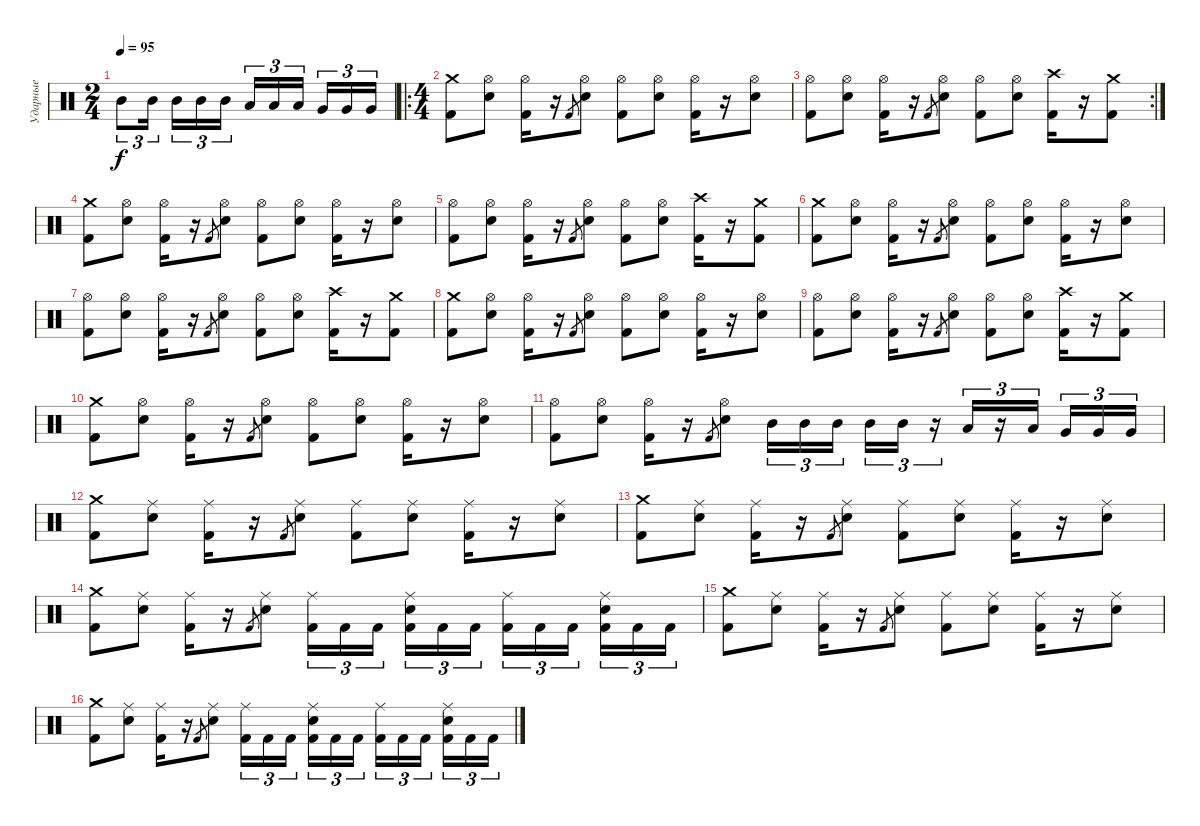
\track ("Ударные" "Ударные") {instrument percussion}
\staff
\articulation defaults
\ts (2 4)
\tempo 95
\clef neutral
\ks c "Mid Tom (hit)".8{tu (3 2) dy f} "Mid Tom (hit)".16{tu (3 2) beam splitsecondary} "Mid Tom (hit)".16{tu (3 2)} "Mid Tom (hit)".16{tu (3 2)} "Mid Tom (hit)".16{tu (3 2)} "Low Tom (hit)".16{tu (3 2)} "Low Tom (hit)".16{tu (3 2)} "Low Tom (hit)".16{tu (3 2) beam splitsecondary} "Very Low Tom (hit)".16{tu (3 2)} "Very Low Tom (hit)".16{tu (3 2)} "Very Low Tom (hit)".16{tu (3 2)}
|
\ro
\ts (4 4)
("Crash medium (hit)" "Kick (hit) 2").8 ("Electric Snare (hit)" "Hi-Hat (open)").8 ("Hi-Hat (open)" "Kick (hit) 2").16 r.16 "Kick (hit) 2".8{gr} ("Electric Snare (hit)" "Hi-Hat (open)").8 ("Hi-Hat (open)" "Kick (hit) 2").8 ("Electric Snare (hit)" "Hi-Hat (open)").8 ("Hi-Hat (open)" "Kick (hit) 2").16 r.16 ("Electric Snare (hit)" "Hi-Hat (open)").8 |
\rc 2
("Hi-Hat (open)" "Kick (hit) 2").8 ("Electric Snare (hit)" "Hi-Hat (open)").8 ("Hi-Hat (open)" "Kick (hit) 2").16 r.16 "Kick (hit) 2".8{gr} ("Electric Snare (hit)" "Hi-Hat (open)").8 ("Hi-Hat (open)" "Kick (hit) 2").8 ("Electric Snare (hit)" "Hi-Hat (open)").8 ("Crash high (hit)" "Kick (hit) 2").16 r.16 ("Crash medium (hit)" "Kick (hit) 2").8 |
("Crash medium (hit)" "Kick (hit) 2").8 ("Electric Snare (hit)" "Hi-Hat (open)").8 ("Hi-Hat (open)" "Kick (hit) 2").16 r.16 "Kick (hit) 2".8{gr} ("Electric Snare (hit)" "Hi-Hat (open)").8 ("Hi-Hat (open)" "Kick (hit) 2").8 ("Electric Snare (hit)" "Hi-Hat (open)").8 ("Hi-Hat (open)" "Kick (hit) 2").16 r.16 ("Electric Snare (hit)" "Hi-Hat (open)").8 |
("Hi-Hat (open)" "Kick (hit) 2").8 ("Electric Snare (hit)" "Hi-Hat (open)").8 ("Hi-Hat (open)" "Kick (hit) 2").16 r.16 "Kick (hit) 2".8{gr} ("Electric Snare (hit)" "Hi-Hat (open)").8 ("Hi-Hat (open)" "Kick (hit) 2").8 ("Electric Snare (hit)" "Hi-Hat (open)").8 ("Crash high (hit)" "Kick (hit) 2").16 r.16 ("Crash medium (hit)" "Kick (hit) 2").8 |
("Crash medium (hit)" "Kick (hit) 2").8 ("Electric Snare (hit)" "Hi-Hat (open)").8 ("Hi-Hat (open)" "Kick (hit) 2").16 r.16 "Kick (hit) 2".8{gr} ("Electric Snare (hit)" "Hi-Hat (open)").8 ("Hi-Hat (open)" "Kick (hit) 2").8 ("Electric Snare (hit)" "Hi-Hat (open)").8 ("Hi-Hat (open)" "Kick (hit) 2").16 r.16 ("Electric Snare (hit)" "Hi-Hat (open)").8 |
("Hi-Hat (open)" "Kick (hit) 2").8 ("Electric Snare (hit)" "Hi-Hat (open)").8 ("Hi-Hat (open)" "Kick (hit) 2").16 r.16 "Kick (hit) 2".8{gr} ("Electric Snare (hit)" "Hi-Hat (open)").8 ("Hi-Hat (open)" "Kick (hit) 2").8 ("Electric Snare (hit)" "Hi-Hat (open)").8 ("Crash high (hit)" "Kick (hit) 2").16 r.16 ("Crash medium (hit)" "Kick (hit) 2").8 |
("Crash medium (hit)" "Kick (hit) 2").8 ("Electric Snare (hit)" "Hi-Hat (open)").8 ("Hi-Hat (open)" "Kick (hit) 2").16 r.16 "Kick (hit) 2".8{gr} ("Electric Snare (hit)" "Hi-Hat (open)").8 ("Hi-Hat (open)" "Kick (hit) 2").8 ("Electric Snare (hit)" "Hi-Hat (open)").8 ("Hi-Hat (open)" "Kick (hit) 2").16 r.16 ("Electric Snare (hit)" "Hi-Hat (open)").8 |
("Hi-Hat (open)" "Kick (hit) 2").8 ("Electric Snare (hit)" "Hi-Hat (open)").8 ("Hi-Hat (open)" "Kick (hit) 2").16 r.16 "Kick (hit) 2".8{gr} ("Electric Snare (hit)" "Hi-Hat (open)").8 ("Hi-Hat (open)" "Kick (hit) 2").8 ("Electric Snare (hit)" "Hi-Hat (open)").8 ("Crash high (hit)" "Kick (hit) 2").16 r.16 ("Crash medium (hit)" "Kick (hit) 2").8 |
("Crash medium (hit)" "Kick (hit) 2").8 ("Electric Snare (hit)" "Hi-Hat (open)").8 ("Hi-Hat (open)" "Kick (hit) 2").16 r.16 "Kick (hit) 2".8{gr} ("Electric Snare (hit)" "Hi-Hat (open)").8 ("Hi-Hat (open)" "Kick (hit) 2").8 ("Electric Snare (hit)" "Hi-Hat (open)").8 ("Hi-Hat (open)" "Kick (hit) 2").16 r.16 ("Electric Snare (hit)" "Hi-Hat (open)").8 |
("Hi-Hat (open)" "Kick (hit) 2").8 ("Electric Snare (hit)" "Hi-Hat (open)").8 ("Hi-Hat (open)" "Kick (hit) 2").16 r.16 "Kick (hit) 2".8{gr} ("Electric Snare (hit)" "Hi-Hat (open)").8 "Mid Tom (hit)".16{tu (3 2)} "Mid Tom (hit)".16{tu (3 2)} "Mid Tom (hit)".16{tu (3 2) beam splitsecondary} "Mid Tom (hit)".16{tu (3 2)} "Mid Tom (hit)".16{tu (3 2)} r.16{tu (3 2)} "Low Tom (hit)".16{tu (3 2)} r.16{tu (3 2)} "Low Tom (hit)".16{tu (3 2) beam splitsecondary} "Very Low Tom (hit)".16{tu (3 2)} "Very Low Tom (hit)".16{tu (3 2)} "Very Low Tom (hit)".16{tu (3 2)} |
("Crash medium (hit)" "Kick (hit) 2").8 ("Ride (middle)" "Electric Snare (hit)").8 ("Ride (middle)" "Kick (hit) 2").16 r.16 "Kick (hit) 2".8{gr} ("Ride (middle)" "Electric Snare (hit)").8 ("Ride (middle)" "Kick (hit) 2").8 ("Ride (middle)" "Electric Snare (hit)").8 ("Ride (middle)" "Kick (hit) 2").16 r.16 ("Electric Snare (hit)" "Ride (middle)").8 |
("Crash medium (hit)" "Kick (hit) 2").8 ("Electric Snare (hit)" "Ride (middle)").8 ("Ride (middle)" "Kick (hit) 2").16 r.16 "Kick (hit) 2".8{gr} ("Electric Snare (hit)" "Ride (middle)").8 ("Ride (middle)" "Kick (hit) 2").8 ("Electric Snare (hit)" "Ride (middle)").8 ("Ride (middle)" "Kick (hit) 2").16 r.16 ("Ride (middle)" "Electric Snare (hit)").8 |
("Crash medium (hit)" "Kick (hit) 2").8 ("Electric Snare (hit)" "Ride (middle)").8 ("Ride (middle)" "Kick (hit) 2").16 r.16 "Kick (hit) 2".8{gr} ("Electric Snare (hit)" "Ride (middle)").8 ("Ride (middle)" "Kick (hit) 2").16{tu (3 2)} "Kick (hit) 2".16{tu (3 2)} "Kick (hit) 2".16{tu (3 2) beam splitsecondary} ("Ride (middle)" "Electric Snare (hit)" "Kick (hit) 2").16{tu (3 2)} "Kick (hit) 2".16{tu (3 2)} "Kick (hit) 2".16{tu (3 2)} ("Ride (middle)" "Kick (hit) 2").16{tu (3 2)} "Kick (hit) 2".16{tu (3 2)} "Kick (hit) 2".16{tu (3 2) beam splitsecondary} ("Ride (middle)" "Electric Snare (hit)" "Kick (hit) 2").16{tu (3 2)} "Kick (hit) 2".16{tu (3 2)} "Kick (hit) 2".16{tu (3 2)} |
("Crash medium (hit)" "Kick (hit) 2").8 ("Electric Snare (hit)" "Ride (middle)").8 ("Ride (middle)" "Kick (hit) 2").16 r.16 "Kick (hit) 2".8{gr} ("Electric Snare (hit)" "Ride (middle)").8 ("Ride (middle)" "Kick (hit) 2").8 ("Electric Snare (hit)" "Ride (middle)").8 ("Ride (middle)" "Kick (hit) 2").16 r.16 ("Ride (middle)" "Electric Snare (hit)").8 |
("Crash medium (hit)" "Kick (hit) 2").8 ("Electric Snare (hit)" "Ride (middle)").8 ("Ride (middle)" "Kick (hit) 2").16 r.16 "Kick (hit) 2".8{gr} ("Electric Snare (hit)" "Ride (middle)").8 ("Ride (middle)" "Kick (hit) 2").16{tu (3 2)} "Kick (hit) 2".16{tu (3 2)} "Kick (hit) 2".16{tu (3 2) beam splitsecondary} ("Ride (middle)" "Electric Snare (hit)" "Kick (hit) 2").16{tu (3 2)} "Kick (hit) 2".16{tu (3 2)} "Kick (hit) 2".16{tu (3 2)} ("Ride (middle)" "Kick (hit) 2").16{tu (3 2)} "Kick (hit) 2".16{tu (3 2)} "Kick (hit) 2".16{tu (3 2) beam splitsecondary} ("Ride (middle)" "Electric Snare (hit)" "Kick (hit) 2").16{tu (3 2)} "Kick (hit) 2".16{tu (3 2)} "Kick (hit) 2".16{tu (3 2)}
